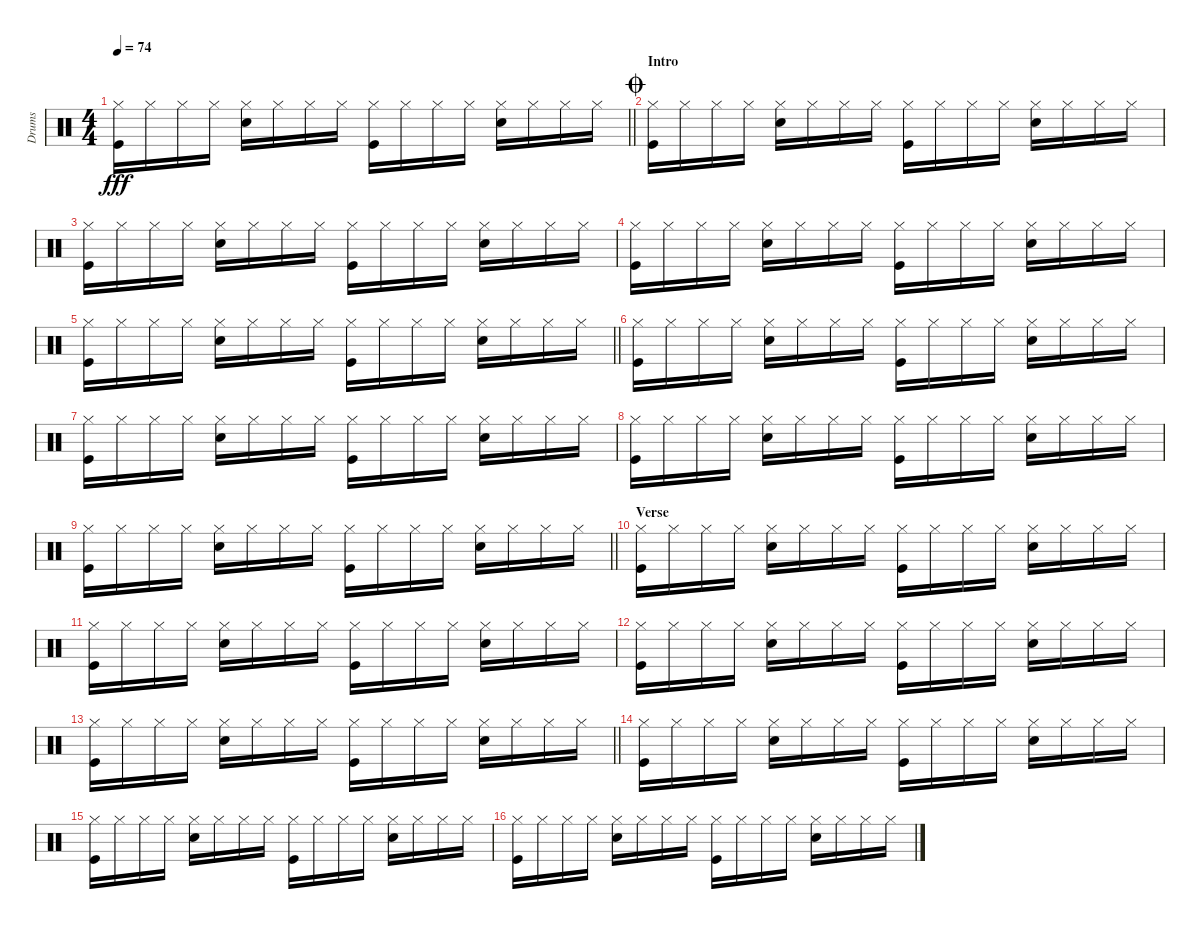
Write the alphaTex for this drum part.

\track ("Drums" "Drums") {instrument percussion}
\staff {score}
\articulation defaults
\ts (4 4)
\tempo 74
\clef neutral
\barLineRight lightlight
\ks c
("Hi-Hat (closed)" "Kick (hit)").16{dy fff} "Hi-Hat (closed)".16 "Hi-Hat (closed)".16 "Hi-Hat (closed)".16 ("Hi-Hat (closed)" "Snare (hit) 2").16 "Hi-Hat (closed)".16 "Hi-Hat (closed)".16 "Hi-Hat (closed)".16 ("Hi-Hat (closed)" "Kick (hit)").16 "Hi-Hat (closed)".16 "Hi-Hat (closed)".16 "Hi-Hat (closed)".16 ("Hi-Hat (closed)" "Snare (hit) 2").16 "Hi-Hat (closed)".16 "Hi-Hat (closed)".16 "Hi-Hat (closed)".16 |
\section ("" "Intro")
\jump coda
("Hi-Hat (closed)" "Kick (hit)").16 "Hi-Hat (closed)".16 "Hi-Hat (closed)".16 "Hi-Hat (closed)".16 ("Hi-Hat (closed)" "Snare (hit) 2").16 "Hi-Hat (closed)".16 "Hi-Hat (closed)".16 "Hi-Hat (closed)".16 ("Hi-Hat (closed)" "Kick (hit)").16 "Hi-Hat (closed)".16 "Hi-Hat (closed)".16 "Hi-Hat (closed)".16 ("Hi-Hat (closed)" "Snare (hit) 2").16 "Hi-Hat (closed)".16 "Hi-Hat (closed)".16 "Hi-Hat (closed)".16 |
("Hi-Hat (closed)" "Kick (hit)").16 "Hi-Hat (closed)".16 "Hi-Hat (closed)".16 "Hi-Hat (closed)".16 ("Hi-Hat (closed)" "Snare (hit) 2").16 "Hi-Hat (closed)".16 "Hi-Hat (closed)".16 "Hi-Hat (closed)".16 ("Hi-Hat (closed)" "Kick (hit)").16 "Hi-Hat (closed)".16 "Hi-Hat (closed)".16 "Hi-Hat (closed)".16 ("Hi-Hat (closed)" "Snare (hit) 2").16 "Hi-Hat (closed)".16 "Hi-Hat (closed)".16 "Hi-Hat (closed)".16 |
("Hi-Hat (closed)" "Kick (hit)").16 "Hi-Hat (closed)".16 "Hi-Hat (closed)".16 "Hi-Hat (closed)".16 ("Hi-Hat (closed)" "Snare (hit) 2").16 "Hi-Hat (closed)".16 "Hi-Hat (closed)".16 "Hi-Hat (closed)".16 ("Hi-Hat (closed)" "Kick (hit)").16 "Hi-Hat (closed)".16 "Hi-Hat (closed)".16 "Hi-Hat (closed)".16 ("Hi-Hat (closed)" "Snare (hit) 2").16 "Hi-Hat (closed)".16 "Hi-Hat (closed)".16 "Hi-Hat (closed)".16 |
\barLineRight lightlight
("Hi-Hat (closed)" "Kick (hit)").16 "Hi-Hat (closed)".16 "Hi-Hat (closed)".16 "Hi-Hat (closed)".16 ("Hi-Hat (closed)" "Snare (hit) 2").16 "Hi-Hat (closed)".16 "Hi-Hat (closed)".16 "Hi-Hat (closed)".16 ("Hi-Hat (closed)" "Kick (hit)").16 "Hi-Hat (closed)".16 "Hi-Hat (closed)".16 "Hi-Hat (closed)".16 ("Hi-Hat (closed)" "Snare (hit) 2").16 "Hi-Hat (closed)".16 "Hi-Hat (closed)".16 "Hi-Hat (closed)".16 |
("Hi-Hat (closed)" "Kick (hit)").16 "Hi-Hat (closed)".16 "Hi-Hat (closed)".16 "Hi-Hat (closed)".16 ("Hi-Hat (closed)" "Snare (hit) 2").16 "Hi-Hat (closed)".16 "Hi-Hat (closed)".16 "Hi-Hat (closed)".16 ("Hi-Hat (closed)" "Kick (hit)").16 "Hi-Hat (closed)".16 "Hi-Hat (closed)".16 "Hi-Hat (closed)".16 ("Hi-Hat (closed)" "Snare (hit) 2").16 "Hi-Hat (closed)".16 "Hi-Hat (closed)".16 "Hi-Hat (closed)".16 |
("Hi-Hat (closed)" "Kick (hit)").16 "Hi-Hat (closed)".16 "Hi-Hat (closed)".16 "Hi-Hat (closed)".16 ("Hi-Hat (closed)" "Snare (hit) 2").16 "Hi-Hat (closed)".16 "Hi-Hat (closed)".16 "Hi-Hat (closed)".16 ("Hi-Hat (closed)" "Kick (hit)").16 "Hi-Hat (closed)".16 "Hi-Hat (closed)".16 "Hi-Hat (closed)".16 ("Hi-Hat (closed)" "Snare (hit) 2").16 "Hi-Hat (closed)".16 "Hi-Hat (closed)".16 "Hi-Hat (closed)".16 |
("Hi-Hat (closed)" "Kick (hit)").16 "Hi-Hat (closed)".16 "Hi-Hat (closed)".16 "Hi-Hat (closed)".16 ("Hi-Hat (closed)" "Snare (hit) 2").16 "Hi-Hat (closed)".16 "Hi-Hat (closed)".16 "Hi-Hat (closed)".16 ("Hi-Hat (closed)" "Kick (hit)").16 "Hi-Hat (closed)".16 "Hi-Hat (closed)".16 "Hi-Hat (closed)".16 ("Hi-Hat (closed)" "Snare (hit) 2").16 "Hi-Hat (closed)".16 "Hi-Hat (closed)".16 "Hi-Hat (closed)".16 |
\barLineRight lightlight
("Hi-Hat (closed)" "Kick (hit)").16 "Hi-Hat (closed)".16 "Hi-Hat (closed)".16 "Hi-Hat (closed)".16 ("Hi-Hat (closed)" "Snare (hit) 2").16 "Hi-Hat (closed)".16 "Hi-Hat (closed)".16 "Hi-Hat (closed)".16 ("Hi-Hat (closed)" "Kick (hit)").16 "Hi-Hat (closed)".16 "Hi-Hat (closed)".16 "Hi-Hat (closed)".16 ("Hi-Hat (closed)" "Snare (hit) 2").16 "Hi-Hat (closed)".16 "Hi-Hat (closed)".16 "Hi-Hat (closed)".16 |
\section ("" "Verse")
("Hi-Hat (closed)" "Kick (hit)").16 "Hi-Hat (closed)".16 "Hi-Hat (closed)".16 "Hi-Hat (closed)".16 ("Hi-Hat (closed)" "Snare (hit) 2").16 "Hi-Hat (closed)".16 "Hi-Hat (closed)".16 "Hi-Hat (closed)".16 ("Hi-Hat (closed)" "Kick (hit)").16 "Hi-Hat (closed)".16 "Hi-Hat (closed)".16 "Hi-Hat (closed)".16 ("Hi-Hat (closed)" "Snare (hit) 2").16 "Hi-Hat (closed)".16 "Hi-Hat (closed)".16 "Hi-Hat (closed)".16 |
("Hi-Hat (closed)" "Kick (hit)").16 "Hi-Hat (closed)".16 "Hi-Hat (closed)".16 "Hi-Hat (closed)".16 ("Hi-Hat (closed)" "Snare (hit) 2").16 "Hi-Hat (closed)".16 "Hi-Hat (closed)".16 "Hi-Hat (closed)".16 ("Hi-Hat (closed)" "Kick (hit)").16 "Hi-Hat (closed)".16 "Hi-Hat (closed)".16 "Hi-Hat (closed)".16 ("Hi-Hat (closed)" "Snare (hit) 2").16 "Hi-Hat (closed)".16 "Hi-Hat (closed)".16 "Hi-Hat (closed)".16 |
("Hi-Hat (closed)" "Kick (hit)").16 "Hi-Hat (closed)".16 "Hi-Hat (closed)".16 "Hi-Hat (closed)".16 ("Hi-Hat (closed)" "Snare (hit) 2").16 "Hi-Hat (closed)".16 "Hi-Hat (closed)".16 "Hi-Hat (closed)".16 ("Hi-Hat (closed)" "Kick (hit)").16 "Hi-Hat (closed)".16 "Hi-Hat (closed)".16 "Hi-Hat (closed)".16 ("Hi-Hat (closed)" "Snare (hit) 2").16 "Hi-Hat (closed)".16 "Hi-Hat (closed)".16 "Hi-Hat (closed)".16 |
\barLineRight lightlight
("Hi-Hat (closed)" "Kick (hit)").16 "Hi-Hat (closed)".16 "Hi-Hat (closed)".16 "Hi-Hat (closed)".16 ("Hi-Hat (closed)" "Snare (hit) 2").16 "Hi-Hat (closed)".16 "Hi-Hat (closed)".16 "Hi-Hat (closed)".16 ("Hi-Hat (closed)" "Kick (hit)").16 "Hi-Hat (closed)".16 "Hi-Hat (closed)".16 "Hi-Hat (closed)".16 ("Hi-Hat (closed)" "Snare (hit) 2").16 "Hi-Hat (closed)".16 "Hi-Hat (closed)".16 "Hi-Hat (closed)".16 |
("Hi-Hat (closed)" "Kick (hit)").16 "Hi-Hat (closed)".16 "Hi-Hat (closed)".16 "Hi-Hat (closed)".16 ("Hi-Hat (closed)" "Snare (hit) 2").16 "Hi-Hat (closed)".16 "Hi-Hat (closed)".16 "Hi-Hat (closed)".16 ("Hi-Hat (closed)" "Kick (hit)").16 "Hi-Hat (closed)".16 "Hi-Hat (closed)".16 "Hi-Hat (closed)".16 ("Hi-Hat (closed)" "Snare (hit) 2").16 "Hi-Hat (closed)".16 "Hi-Hat (closed)".16 "Hi-Hat (closed)".16 |
("Hi-Hat (closed)" "Kick (hit)").16 "Hi-Hat (closed)".16 "Hi-Hat (closed)".16 "Hi-Hat (closed)".16 ("Hi-Hat (closed)" "Snare (hit) 2").16 "Hi-Hat (closed)".16 "Hi-Hat (closed)".16 "Hi-Hat (closed)".16 ("Hi-Hat (closed)" "Kick (hit)").16 "Hi-Hat (closed)".16 "Hi-Hat (closed)".16 "Hi-Hat (closed)".16 ("Hi-Hat (closed)" "Snare (hit) 2").16 "Hi-Hat (closed)".16 "Hi-Hat (closed)".16 "Hi-Hat (closed)".16 |
("Hi-Hat (closed)" "Kick (hit)").16 "Hi-Hat (closed)".16 "Hi-Hat (closed)".16 "Hi-Hat (closed)".16 ("Hi-Hat (closed)" "Snare (hit) 2").16 "Hi-Hat (closed)".16 "Hi-Hat (closed)".16 "Hi-Hat (closed)".16 ("Hi-Hat (closed)" "Kick (hit)").16 "Hi-Hat (closed)".16 "Hi-Hat (closed)".16 "Hi-Hat (closed)".16 ("Hi-Hat (closed)" "Snare (hit) 2").16 "Hi-Hat (closed)".16 "Hi-Hat (closed)".16 "Hi-Hat (closed)".16
